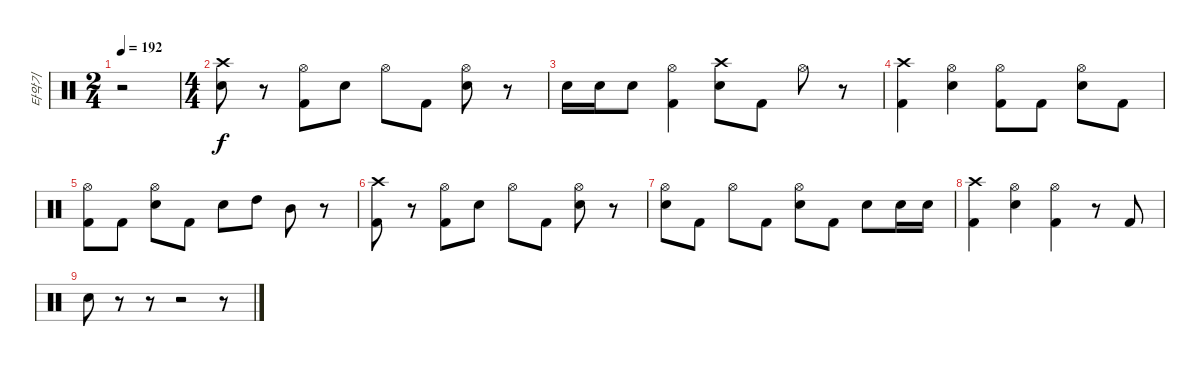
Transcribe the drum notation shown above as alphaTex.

\track ("타악기" "타악기") {instrument percussion}
\staff {score}
\articulation defaults
\ts (2 4)
\tempo 192
\clef neutral
\ks c
r.2{dy f} |
\ts (4 4)
("Crash high (hit)" "Snare (hit) 2").8 r.8 ("Hi-Hat (open)" "Kick (hit) 2").8 "Snare (hit) 2".8 "Hi-Hat (open)".8 "Kick (hit) 2".8 ("Hi-Hat (open)" "Snare (hit) 2").8 r.8 |
"Snare (hit) 2".16 "Snare (hit) 2".16 "Snare (hit) 2".8 ("Hi-Hat (open)" "Kick (hit) 2").4 ("Crash high (hit)" "Snare (hit) 2").8 "Kick (hit) 2".8 "Hi-Hat (open)".8 r.8 |
("Crash high (hit)" "Kick (hit) 2").4 ("Hi-Hat (open)" "Snare (hit) 2").4 ("Hi-Hat (open)" "Kick (hit) 2").8 "Kick (hit) 2".8 ("Hi-Hat (open)" "Snare (hit) 2").8 "Kick (hit) 2".8 |
("Hi-Hat (open)" "Kick (hit) 2").8 "Kick (hit) 2".8 ("Hi-Hat (open)" "Snare (hit) 2").8 "Kick (hit) 2".8 "Snare (hit) 2".8 "High Tom (hit)".8 "Mid Tom (hit)".8 r.8 |
("Crash high (hit)" "Kick (hit) 2").8 r.8 ("Hi-Hat (open)" "Kick (hit) 2").8 "Snare (hit) 2".8 "Hi-Hat (open)".8 "Kick (hit) 2".8 ("Hi-Hat (open)" "Snare (hit) 2").8 r.8 |
("Hi-Hat (open)" "Snare (hit) 2").8 "Kick (hit) 2".8 "Hi-Hat (open)".8 "Kick (hit) 2".8 ("Hi-Hat (open)" "Snare (hit) 2").8 "Kick (hit) 2".8 "Snare (hit) 2".8 "Snare (hit) 2".16 "Snare (hit) 2".16 |
("Crash high (hit)" "Kick (hit) 2").4 ("Hi-Hat (open)" "Snare (hit) 2").4 ("Hi-Hat (open)" "Kick (hit) 2").4 r.8 "Kick (hit) 2".8 |
"Snare (hit) 2".8 r.8 r.8 r.2 r.8
